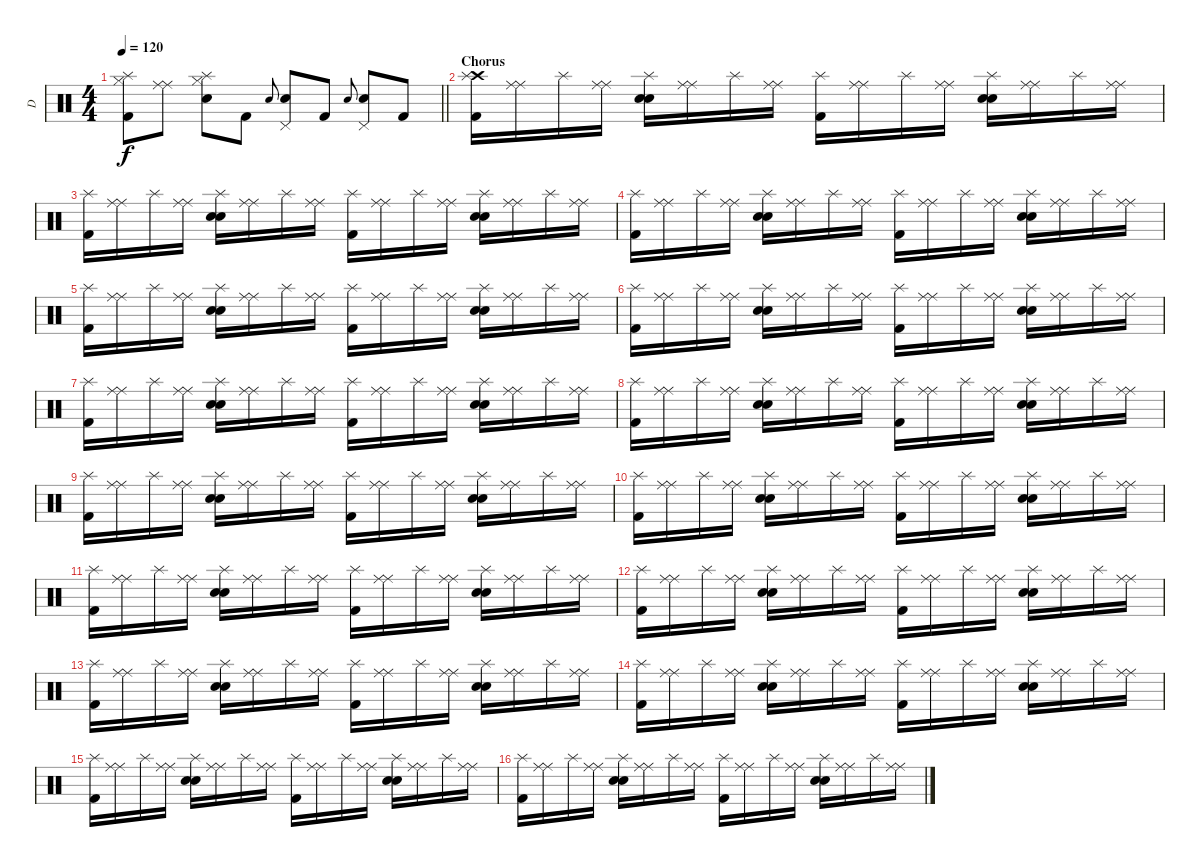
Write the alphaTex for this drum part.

\track ("D" "D") {instrument percussion}
\staff {score}
\articulation defaults
\ts (4 4)
\tempo 120
\clef neutral
\barLineRight lightlight
\ks c
("Kick (hit) 2" "Splash (hit)" "Hi-Hat (closed)").8{dy f} ("Ride (middle)" "Ride (middle)").8 ("Electric Snare (hit)" "Splash (hit)" "Hi-Hat (closed)").8 "Kick (hit) 2".8 "Electric Snare (hit)".8{gr onbeat} ("Electric Snare (hit)" "Pedal Hi-Hat (hit)").8 "Kick (hit) 2".8 "Electric Snare (hit)".8{gr onbeat} ("Electric Snare (hit)" "Pedal Hi-Hat (hit)").8 "Kick (hit) 2".8 |
\section ("" "Chorus")
("Crash high (hit)" "Kick (hit) 2" "Splash (hit)").16 ("Ride (middle)" "Ride (middle)").16 "Splash (hit)".16 ("Ride (middle)" "Ride (middle)").16 ("Electric Snare (hit)" "Electric Snare (hit)" "Splash (hit)").16 ("Ride (middle)" "Ride (middle)").16 "Splash (hit)".16 ("Ride (middle)" "Ride (middle)").16 ("Kick (hit) 2" "Splash (hit)").16 ("Ride (middle)" "Ride (middle)").16 "Splash (hit)".16 ("Ride (middle)" "Ride (middle)").16 ("Electric Snare (hit)" "Electric Snare (hit)" "Splash (hit)").16 ("Ride (middle)" "Ride (middle)").16 "Splash (hit)".16 ("Ride (middle)" "Ride (middle)").16 |
("Kick (hit) 2" "Splash (hit)").16 ("Ride (middle)" "Ride (middle)").16 "Splash (hit)".16 ("Ride (middle)" "Ride (middle)").16 ("Electric Snare (hit)" "Electric Snare (hit)" "Splash (hit)").16 ("Ride (middle)" "Ride (middle)").16 "Splash (hit)".16 ("Ride (middle)" "Ride (middle)").16 ("Kick (hit) 2" "Splash (hit)").16 ("Ride (middle)" "Ride (middle)").16 "Splash (hit)".16 ("Ride (middle)" "Ride (middle)").16 ("Electric Snare (hit)" "Electric Snare (hit)" "Splash (hit)").16 ("Ride (middle)" "Ride (middle)").16 "Splash (hit)".16 ("Ride (middle)" "Ride (middle)").16 |
("Kick (hit) 2" "Splash (hit)").16 ("Ride (middle)" "Ride (middle)").16 "Splash (hit)".16 ("Ride (middle)" "Ride (middle)").16 ("Electric Snare (hit)" "Electric Snare (hit)" "Splash (hit)").16 ("Ride (middle)" "Ride (middle)").16 "Splash (hit)".16 ("Ride (middle)" "Ride (middle)").16 ("Kick (hit) 2" "Splash (hit)").16 ("Ride (middle)" "Ride (middle)").16 "Splash (hit)".16 ("Ride (middle)" "Ride (middle)").16 ("Electric Snare (hit)" "Electric Snare (hit)" "Splash (hit)").16 ("Ride (middle)" "Ride (middle)").16 "Splash (hit)".16 ("Ride (middle)" "Ride (middle)").16 |
("Kick (hit) 2" "Splash (hit)").16 ("Ride (middle)" "Ride (middle)").16 "Splash (hit)".16 ("Ride (middle)" "Ride (middle)").16 ("Electric Snare (hit)" "Electric Snare (hit)" "Splash (hit)").16 ("Ride (middle)" "Ride (middle)").16 "Splash (hit)".16 ("Ride (middle)" "Ride (middle)").16 ("Kick (hit) 2" "Splash (hit)").16 ("Ride (middle)" "Ride (middle)").16 "Splash (hit)".16 ("Ride (middle)" "Ride (middle)").16 ("Electric Snare (hit)" "Electric Snare (hit)" "Splash (hit)").16 ("Ride (middle)" "Ride (middle)").16 "Splash (hit)".16 ("Ride (middle)" "Ride (middle)").16 |
("Kick (hit) 2" "Splash (hit)").16 ("Ride (middle)" "Ride (middle)").16 "Splash (hit)".16 ("Ride (middle)" "Ride (middle)").16 ("Electric Snare (hit)" "Electric Snare (hit)" "Splash (hit)").16 ("Ride (middle)" "Ride (middle)").16 "Splash (hit)".16 ("Ride (middle)" "Ride (middle)").16 ("Kick (hit) 2" "Splash (hit)").16 ("Ride (middle)" "Ride (middle)").16 "Splash (hit)".16 ("Ride (middle)" "Ride (middle)").16 ("Electric Snare (hit)" "Electric Snare (hit)" "Splash (hit)").16 ("Ride (middle)" "Ride (middle)").16 "Splash (hit)".16 ("Ride (middle)" "Ride (middle)").16 |
("Kick (hit) 2" "Splash (hit)").16 ("Ride (middle)" "Ride (middle)").16 "Splash (hit)".16 ("Ride (middle)" "Ride (middle)").16 ("Electric Snare (hit)" "Electric Snare (hit)" "Splash (hit)").16 ("Ride (middle)" "Ride (middle)").16 "Splash (hit)".16 ("Ride (middle)" "Ride (middle)").16 ("Kick (hit) 2" "Splash (hit)").16 ("Ride (middle)" "Ride (middle)").16 "Splash (hit)".16 ("Ride (middle)" "Ride (middle)").16 ("Electric Snare (hit)" "Electric Snare (hit)" "Splash (hit)").16 ("Ride (middle)" "Ride (middle)").16 "Splash (hit)".16 ("Ride (middle)" "Ride (middle)").16 |
("Kick (hit) 2" "Splash (hit)").16 ("Ride (middle)" "Ride (middle)").16 "Splash (hit)".16 ("Ride (middle)" "Ride (middle)").16 ("Electric Snare (hit)" "Electric Snare (hit)" "Splash (hit)").16 ("Ride (middle)" "Ride (middle)").16 "Splash (hit)".16 ("Ride (middle)" "Ride (middle)").16 ("Kick (hit) 2" "Splash (hit)").16 ("Ride (middle)" "Ride (middle)").16 "Splash (hit)".16 ("Ride (middle)" "Ride (middle)").16 ("Electric Snare (hit)" "Electric Snare (hit)" "Splash (hit)").16 ("Ride (middle)" "Ride (middle)").16 "Splash (hit)".16 ("Ride (middle)" "Ride (middle)").16 |
("Kick (hit) 2" "Splash (hit)").16 ("Ride (middle)" "Ride (middle)").16 "Splash (hit)".16 ("Ride (middle)" "Ride (middle)").16 ("Electric Snare (hit)" "Electric Snare (hit)" "Splash (hit)").16 ("Ride (middle)" "Ride (middle)").16 "Splash (hit)".16 ("Ride (middle)" "Ride (middle)").16 ("Kick (hit) 2" "Splash (hit)").16 ("Ride (middle)" "Ride (middle)").16 "Splash (hit)".16 ("Ride (middle)" "Ride (middle)").16 ("Electric Snare (hit)" "Electric Snare (hit)" "Splash (hit)").16 ("Ride (middle)" "Ride (middle)").16 "Splash (hit)".16 ("Ride (middle)" "Ride (middle)").16 |
("Kick (hit) 2" "Splash (hit)").16 ("Ride (middle)" "Ride (middle)").16 "Splash (hit)".16 ("Ride (middle)" "Ride (middle)").16 ("Electric Snare (hit)" "Electric Snare (hit)" "Splash (hit)").16 ("Ride (middle)" "Ride (middle)").16 "Splash (hit)".16 ("Ride (middle)" "Ride (middle)").16 ("Kick (hit) 2" "Splash (hit)").16 ("Ride (middle)" "Ride (middle)").16 "Splash (hit)".16 ("Ride (middle)" "Ride (middle)").16 ("Electric Snare (hit)" "Electric Snare (hit)" "Splash (hit)").16 ("Ride (middle)" "Ride (middle)").16 "Splash (hit)".16 ("Ride (middle)" "Ride (middle)").16 |
("Kick (hit) 2" "Splash (hit)").16 ("Ride (middle)" "Ride (middle)").16 "Splash (hit)".16 ("Ride (middle)" "Ride (middle)").16 ("Electric Snare (hit)" "Electric Snare (hit)" "Splash (hit)").16 ("Ride (middle)" "Ride (middle)").16 "Splash (hit)".16 ("Ride (middle)" "Ride (middle)").16 ("Kick (hit) 2" "Splash (hit)").16 ("Ride (middle)" "Ride (middle)").16 "Splash (hit)".16 ("Ride (middle)" "Ride (middle)").16 ("Electric Snare (hit)" "Electric Snare (hit)" "Splash (hit)").16 ("Ride (middle)" "Ride (middle)").16 "Splash (hit)".16 ("Ride (middle)" "Ride (middle)").16 |
("Kick (hit) 2" "Splash (hit)").16 ("Ride (middle)" "Ride (middle)").16 "Splash (hit)".16 ("Ride (middle)" "Ride (middle)").16 ("Electric Snare (hit)" "Electric Snare (hit)" "Splash (hit)").16 ("Ride (middle)" "Ride (middle)").16 "Splash (hit)".16 ("Ride (middle)" "Ride (middle)").16 ("Kick (hit) 2" "Splash (hit)").16 ("Ride (middle)" "Ride (middle)").16 "Splash (hit)".16 ("Ride (middle)" "Ride (middle)").16 ("Electric Snare (hit)" "Electric Snare (hit)" "Splash (hit)").16 ("Ride (middle)" "Ride (middle)").16 "Splash (hit)".16 ("Ride (middle)" "Ride (middle)").16 |
("Kick (hit) 2" "Splash (hit)").16 ("Ride (middle)" "Ride (middle)").16 "Splash (hit)".16 ("Ride (middle)" "Ride (middle)").16 ("Electric Snare (hit)" "Electric Snare (hit)" "Splash (hit)").16 ("Ride (middle)" "Ride (middle)").16 "Splash (hit)".16 ("Ride (middle)" "Ride (middle)").16 ("Kick (hit) 2" "Splash (hit)").16 ("Ride (middle)" "Ride (middle)").16 "Splash (hit)".16 ("Ride (middle)" "Ride (middle)").16 ("Electric Snare (hit)" "Electric Snare (hit)" "Splash (hit)").16 ("Ride (middle)" "Ride (middle)").16 "Splash (hit)".16 ("Ride (middle)" "Ride (middle)").16 |
("Kick (hit) 2" "Splash (hit)").16 ("Ride (middle)" "Ride (middle)").16 "Splash (hit)".16 ("Ride (middle)" "Ride (middle)").16 ("Electric Snare (hit)" "Electric Snare (hit)" "Splash (hit)").16 ("Ride (middle)" "Ride (middle)").16 "Splash (hit)".16 ("Ride (middle)" "Ride (middle)").16 ("Kick (hit) 2" "Splash (hit)").16 ("Ride (middle)" "Ride (middle)").16 "Splash (hit)".16 ("Ride (middle)" "Ride (middle)").16 ("Electric Snare (hit)" "Electric Snare (hit)" "Splash (hit)").16 ("Ride (middle)" "Ride (middle)").16 "Splash (hit)".16 ("Ride (middle)" "Ride (middle)").16 |
("Kick (hit) 2" "Splash (hit)").16 ("Ride (middle)" "Ride (middle)").16 "Splash (hit)".16 ("Ride (middle)" "Ride (middle)").16 ("Electric Snare (hit)" "Electric Snare (hit)" "Splash (hit)").16 ("Ride (middle)" "Ride (middle)").16 "Splash (hit)".16 ("Ride (middle)" "Ride (middle)").16 ("Kick (hit) 2" "Splash (hit)").16 ("Ride (middle)" "Ride (middle)").16 "Splash (hit)".16 ("Ride (middle)" "Ride (middle)").16 ("Electric Snare (hit)" "Electric Snare (hit)" "Splash (hit)").16 ("Ride (middle)" "Ride (middle)").16 "Splash (hit)".16 ("Ride (middle)" "Ride (middle)").16 |
("Kick (hit) 2" "Splash (hit)").16 ("Ride (middle)" "Ride (middle)").16 "Splash (hit)".16 ("Ride (middle)" "Ride (middle)").16 ("Electric Snare (hit)" "Electric Snare (hit)" "Splash (hit)").16 ("Ride (middle)" "Ride (middle)").16 "Splash (hit)".16 ("Ride (middle)" "Ride (middle)").16 ("Kick (hit) 2" "Splash (hit)").16 ("Ride (middle)" "Ride (middle)").16 "Splash (hit)".16 ("Ride (middle)" "Ride (middle)").16 ("Electric Snare (hit)" "Electric Snare (hit)" "Splash (hit)").16 ("Ride (middle)" "Ride (middle)").16 "Splash (hit)".16 ("Ride (middle)" "Ride (middle)").16
